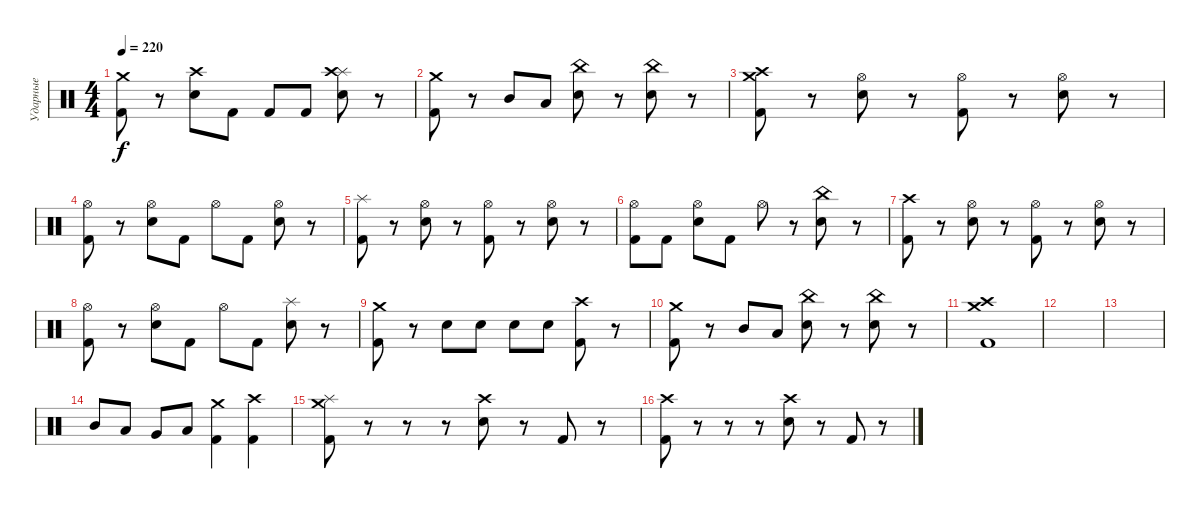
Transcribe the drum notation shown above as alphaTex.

\track ("Ударные" "Ударные") {instrument percussion}
\staff {score}
\articulation defaults
\ts (4 4)
\tempo 220
\clef neutral
\ks c
("Kick (hit) 2" "Crash medium (hit)").8{dy f} r.8 ("Electric Snare (hit)" "Crash high (hit)").8 "Kick (hit) 2".8 "Kick (hit) 2".8 "Kick (hit) 2".8 ("Electric Snare (hit)" "Splash (hit)" "Crash high (hit)").8 r.8 |
("Kick (hit) 2" "Crash medium (hit)").8 r.8 "Mid Tom (hit)".8 "Low Tom (hit)".8 ("Electric Snare (hit)" "China (hit)").8 r.8 ("Electric Snare (hit)" "China (hit)").8 r.8 |
("Kick (hit) 2" "Crash high (hit)" "Crash medium (hit)").8 r.8 ("Electric Snare (hit)" "Hi-Hat (open)").8 r.8 ("Kick (hit) 2" "Hi-Hat (open)").8 r.8 ("Electric Snare (hit)" "Hi-Hat (open)").8 r.8 |
("Kick (hit) 2" "Hi-Hat (open)").8 r.8 ("Electric Snare (hit)" "Hi-Hat (open)").8 "Kick (hit) 2".8 "Hi-Hat (open)".8 "Kick (hit) 2".8 ("Electric Snare (hit)" "Hi-Hat (open)").8 r.8 |
("Kick (hit) 2" "Splash (hit)").8 r.8 ("Electric Snare (hit)" "Hi-Hat (open)").8 r.8 ("Kick (hit) 2" "Hi-Hat (open)").8 r.8 ("Electric Snare (hit)" "Hi-Hat (open)").8 r.8 |
("Kick (hit) 2" "Hi-Hat (open)").8 "Kick (hit) 2".8 ("Electric Snare (hit)" "Hi-Hat (open)").8 "Kick (hit) 2".8 "Hi-Hat (open)".8 r.8 ("Electric Snare (hit)" "China (hit)").8 r.8 |
("Kick (hit) 2" "Crash high (hit)").8 r.8 ("Electric Snare (hit)" "Hi-Hat (open)").8 r.8 ("Kick (hit) 2" "Hi-Hat (open)").8 r.8 ("Electric Snare (hit)" "Hi-Hat (open)").8 r.8 |
("Kick (hit) 2" "Hi-Hat (open)").8 r.8 ("Electric Snare (hit)" "Hi-Hat (open)").8 "Kick (hit) 2".8 "Hi-Hat (open)".8 "Kick (hit) 2".8 ("Electric Snare (hit)" "Splash (hit)").8 r.8 |
("Kick (hit) 2" "Crash medium (hit)").8 r.8 "Electric Snare (hit)".8 "Electric Snare (hit)".8 "Electric Snare (hit)".8 "Electric Snare (hit)".8 ("Kick (hit) 2" "Crash high (hit)").8 r.8 |
("Kick (hit) 2" "Crash medium (hit)").8 r.8 "Mid Tom (hit)".8 "Low Tom (hit)".8 ("Electric Snare (hit)" "China (hit)").8 r.8 ("Electric Snare (hit)" "China (hit)").8 r.8 |
("Kick (hit) 2" "Crash high (hit)" "Crash medium (hit)").1 |
|
|
"Mid Tom (hit)".8 "Low Tom (hit)".8 "Very Low Tom (hit)".8 "Low Floor Tom (hit)".8 ("Kick (hit) 2" "Crash medium (hit)").4 ("Kick (hit) 2" "Crash high (hit)").4 |
("Kick (hit) 2" "Splash (hit)" "Crash medium (hit)").8 r.8 r.8 r.8 ("Electric Snare (hit)" "Crash high (hit)").8 r.8 "Kick (hit) 2".8 r.8 |
("Kick (hit) 2" "Crash high (hit)").8 r.8 r.8 r.8 ("Electric Snare (hit)" "Crash high (hit)").8 r.8 "Kick (hit) 2".8 r.8
